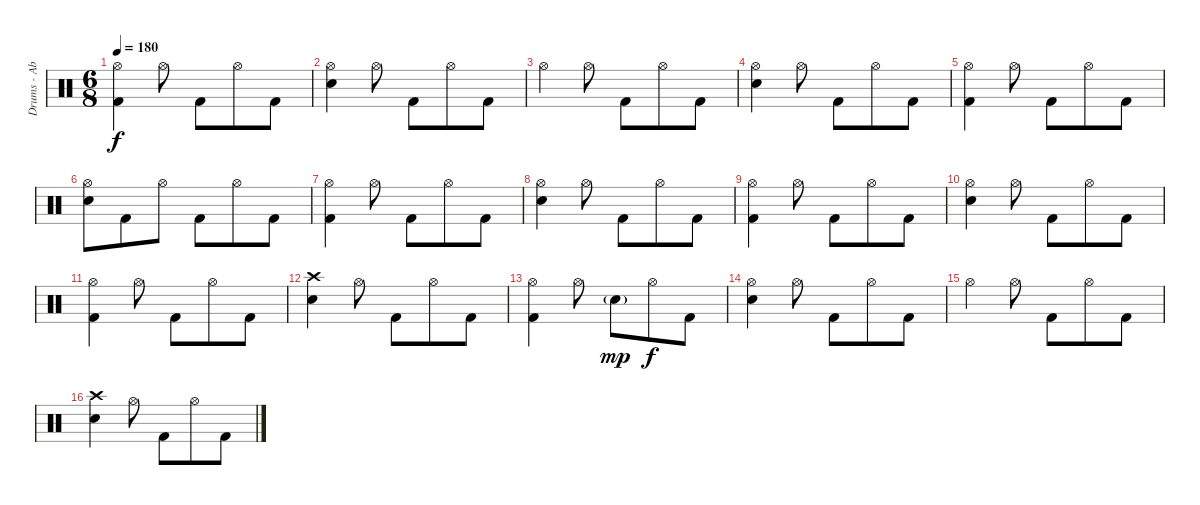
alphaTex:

\track ("Drums - Abe Cunningham" "Drums - Ab") {instrument percussion}
\staff {score}
\articulation defaults
\ts (6 8)
\tempo 180
\clef neutral
\ks c
("Hi-Hat (open)" "Kick (hit) 2").4{dy f} "Hi-Hat (open)".8 "Kick (hit) 2".8 "Hi-Hat (open)".8 "Kick (hit) 2".8 |
("Hi-Hat (open)" "Electric Snare (hit)").4 "Hi-Hat (open)".8 "Kick (hit) 2".8 "Hi-Hat (open)".8 "Kick (hit) 2".8 |
"Hi-Hat (open)".4 "Hi-Hat (open)".8 "Kick (hit) 2".8 "Hi-Hat (open)".8 "Kick (hit) 2".8 |
("Hi-Hat (open)" "Electric Snare (hit)").4 "Hi-Hat (open)".8 "Kick (hit) 2".8 "Hi-Hat (open)".8 "Kick (hit) 2".8 |
("Hi-Hat (open)" "Kick (hit) 2").4 "Hi-Hat (open)".8 "Kick (hit) 2".8 "Hi-Hat (open)".8 "Kick (hit) 2".8 |
("Hi-Hat (open)" "Electric Snare (hit)").8 "Kick (hit) 2".8 "Hi-Hat (open)".8 "Kick (hit) 2".8 "Hi-Hat (open)".8 "Kick (hit) 2".8 |
("Hi-Hat (open)" "Kick (hit) 2").4 "Hi-Hat (open)".8 "Kick (hit) 2".8 "Hi-Hat (open)".8 "Kick (hit) 2".8 |
("Hi-Hat (open)" "Electric Snare (hit)").4 "Hi-Hat (open)".8 "Kick (hit) 2".8 "Hi-Hat (open)".8 "Kick (hit) 2".8 |
("Hi-Hat (open)" "Kick (hit) 2").4 "Hi-Hat (open)".8 "Kick (hit) 2".8 "Hi-Hat (open)".8 "Kick (hit) 2".8 |
("Hi-Hat (open)" "Electric Snare (hit)").4 "Hi-Hat (open)".8 "Kick (hit) 2".8 "Hi-Hat (open)".8 "Kick (hit) 2".8 |
("Hi-Hat (open)" "Kick (hit) 2").4 "Hi-Hat (open)".8 "Kick (hit) 2".8 "Hi-Hat (open)".8 "Kick (hit) 2".8 |
("Crash high (hit)" "Electric Snare (hit)").4 "Hi-Hat (open)".8 "Kick (hit) 2".8 "Hi-Hat (open)".8 "Kick (hit) 2".8 |
("Hi-Hat (open)" "Kick (hit) 2").4 "Hi-Hat (open)".8 "Electric Snare (hit)"{g}.8{dy mp} "Hi-Hat (open)".8{dy f} "Kick (hit) 2".8 |
("Hi-Hat (open)" "Electric Snare (hit)").4 "Hi-Hat (open)".8 "Kick (hit) 2".8 "Hi-Hat (open)".8 "Kick (hit) 2".8 |
"Hi-Hat (open)".4 "Hi-Hat (open)".8 "Kick (hit) 2".8 "Hi-Hat (open)".8 "Kick (hit) 2".8 |
("Crash high (hit)" "Electric Snare (hit)").4 "Hi-Hat (open)".8 "Kick (hit) 2".8 "Hi-Hat (open)".8 "Kick (hit) 2".8
